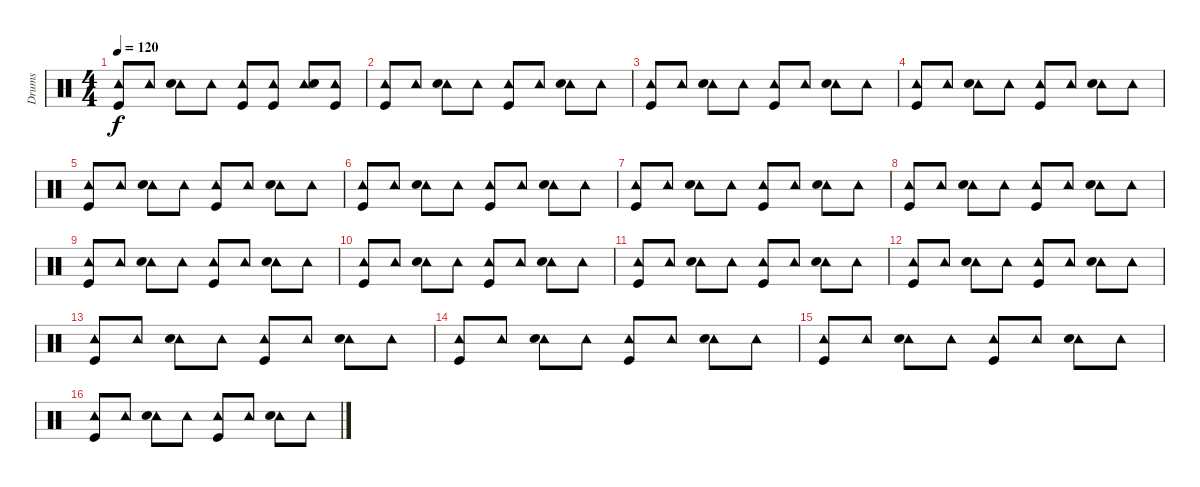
\track ("Drums" "Drums") {instrument percussion}
\staff {score}
\articulation defaults
\ts (4 4)
\tempo 120
\clef neutral
\ks c
("Tambourine (hit)" "Kick (hit)").8{dy f} "Tambourine (hit)".8 ("Tambourine (hit)" "Snare (hit) 2").8 "Tambourine (hit)".8 ("Tambourine (hit)" "Kick (hit)").8 ("Tambourine (hit)" "Kick (hit)").8 ("Tambourine (hit)" "Snare (hit) 2").8 ("Tambourine (hit)" "Kick (hit)").8 |
("Tambourine (hit)" "Kick (hit)").8 "Tambourine (hit)".8 ("Tambourine (hit)" "Snare (hit) 2").8 "Tambourine (hit)".8 ("Tambourine (hit)" "Kick (hit)").8 "Tambourine (hit)".8 ("Tambourine (hit)" "Snare (hit) 2").8 "Tambourine (hit)".8 |
("Tambourine (hit)" "Kick (hit)").8 "Tambourine (hit)".8 ("Tambourine (hit)" "Snare (hit) 2").8 "Tambourine (hit)".8 ("Tambourine (hit)" "Kick (hit)").8 "Tambourine (hit)".8 ("Tambourine (hit)" "Snare (hit) 2").8 "Tambourine (hit)".8 |
("Tambourine (hit)" "Kick (hit)").8 "Tambourine (hit)".8 ("Tambourine (hit)" "Snare (hit) 2").8 "Tambourine (hit)".8 ("Tambourine (hit)" "Kick (hit)").8 "Tambourine (hit)".8 ("Tambourine (hit)" "Snare (hit) 2").8 "Tambourine (hit)".8 |
("Tambourine (hit)" "Kick (hit)").8 "Tambourine (hit)".8 ("Tambourine (hit)" "Snare (hit) 2").8 "Tambourine (hit)".8 ("Tambourine (hit)" "Kick (hit)").8 "Tambourine (hit)".8 ("Tambourine (hit)" "Snare (hit) 2").8 "Tambourine (hit)".8 |
("Tambourine (hit)" "Kick (hit)").8 "Tambourine (hit)".8 ("Tambourine (hit)" "Snare (hit) 2").8 "Tambourine (hit)".8 ("Tambourine (hit)" "Kick (hit)").8 "Tambourine (hit)".8 ("Tambourine (hit)" "Snare (hit) 2").8 "Tambourine (hit)".8 |
("Tambourine (hit)" "Kick (hit)").8 "Tambourine (hit)".8 ("Tambourine (hit)" "Snare (hit) 2").8 "Tambourine (hit)".8 ("Tambourine (hit)" "Kick (hit)").8 "Tambourine (hit)".8 ("Tambourine (hit)" "Snare (hit) 2").8 "Tambourine (hit)".8 |
("Tambourine (hit)" "Kick (hit)").8 "Tambourine (hit)".8 ("Tambourine (hit)" "Snare (hit) 2").8 "Tambourine (hit)".8 ("Tambourine (hit)" "Kick (hit)").8 "Tambourine (hit)".8 ("Tambourine (hit)" "Snare (hit) 2").8 "Tambourine (hit)".8 |
("Tambourine (hit)" "Kick (hit)").8 "Tambourine (hit)".8 ("Tambourine (hit)" "Snare (hit) 2").8 "Tambourine (hit)".8 ("Tambourine (hit)" "Kick (hit)").8 "Tambourine (hit)".8 ("Tambourine (hit)" "Snare (hit) 2").8 "Tambourine (hit)".8 |
("Tambourine (hit)" "Kick (hit)").8 "Tambourine (hit)".8 ("Tambourine (hit)" "Snare (hit) 2").8 "Tambourine (hit)".8 ("Tambourine (hit)" "Kick (hit)").8 "Tambourine (hit)".8 ("Tambourine (hit)" "Snare (hit) 2").8 "Tambourine (hit)".8 |
("Tambourine (hit)" "Kick (hit)").8 "Tambourine (hit)".8 ("Tambourine (hit)" "Snare (hit) 2").8 "Tambourine (hit)".8 ("Tambourine (hit)" "Kick (hit)").8 "Tambourine (hit)".8 ("Tambourine (hit)" "Snare (hit) 2").8 "Tambourine (hit)".8 |
("Tambourine (hit)" "Kick (hit)").8 "Tambourine (hit)".8 ("Tambourine (hit)" "Snare (hit) 2").8 "Tambourine (hit)".8 ("Tambourine (hit)" "Kick (hit)").8 "Tambourine (hit)".8 ("Tambourine (hit)" "Snare (hit) 2").8 "Tambourine (hit)".8 |
("Tambourine (hit)" "Kick (hit)").8 "Tambourine (hit)".8 ("Tambourine (hit)" "Snare (hit) 2").8 "Tambourine (hit)".8 ("Tambourine (hit)" "Kick (hit)").8 "Tambourine (hit)".8 ("Tambourine (hit)" "Snare (hit) 2").8 "Tambourine (hit)".8 |
("Tambourine (hit)" "Kick (hit)").8 "Tambourine (hit)".8 ("Tambourine (hit)" "Snare (hit) 2").8 "Tambourine (hit)".8 ("Tambourine (hit)" "Kick (hit)").8 "Tambourine (hit)".8 ("Tambourine (hit)" "Snare (hit) 2").8 "Tambourine (hit)".8 |
("Tambourine (hit)" "Kick (hit)").8 "Tambourine (hit)".8 ("Tambourine (hit)" "Snare (hit) 2").8 "Tambourine (hit)".8 ("Tambourine (hit)" "Kick (hit)").8 "Tambourine (hit)".8 ("Tambourine (hit)" "Snare (hit) 2").8 "Tambourine (hit)".8 |
("Tambourine (hit)" "Kick (hit)").8 "Tambourine (hit)".8 ("Tambourine (hit)" "Snare (hit) 2").8 "Tambourine (hit)".8 ("Tambourine (hit)" "Kick (hit)").8 "Tambourine (hit)".8 ("Tambourine (hit)" "Snare (hit) 2").8 "Tambourine (hit)".8
